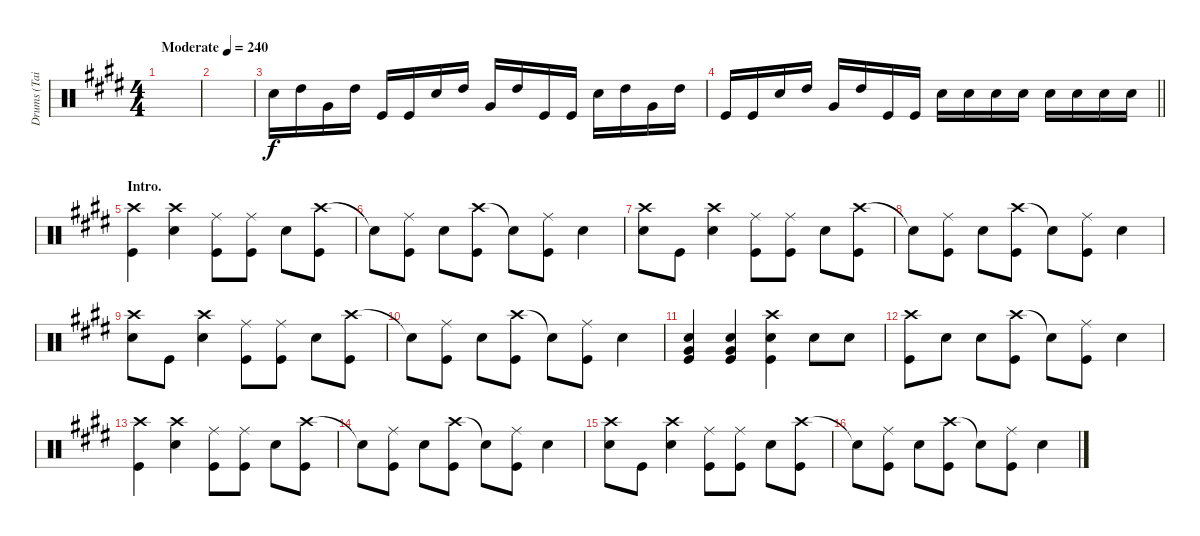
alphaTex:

\track ("Drums (Tainaka Ritsu)" "Drums (Tai") {instrument percussion}
\staff {score}
\articulation defaults
\ts (4 4)
\tempo (240 "Moderate")
\clef neutral
\ks e
|
|
"Snare (hit) 2".16 "High Tom (hit)".16 "Very Low Tom (hit)".16 "High Tom (hit)".16 "Kick (hit)".16 "Kick (hit)".16 "Snare (hit) 2".16 "High Tom (hit)".16 "Very Low Tom (hit)".16 "High Tom (hit)".16 "Kick (hit)".16 "Kick (hit)".16 "Snare (hit) 2".16 "High Tom (hit)".16 "Very Low Tom (hit)".16 "High Tom (hit)".16 |
\barLineRight lightlight "Kick (hit)".16 "Kick (hit)".16 "Snare (hit) 2".16 "High Tom (hit)".16 "Very Low Tom (hit)".16 "High Tom (hit)".16 "Kick (hit)".16 "Kick (hit)".16 "Snare (hit) 2".16 "Snare (hit) 2".16 "Snare (hit) 2".16 "Snare (hit) 2".16 "Snare (hit) 2".16 "Snare (hit) 2".16 "Snare (hit) 2".16 "Snare (hit) 2".16
|
\section ("" "Intro.")
("Crash high (hit)" "Kick (hit)").4 ("Crash high (hit)" "Snare (hit) 2").4 ("Ride (middle)" "Kick (hit)").8 ("Ride (middle)" "Kick (hit)").8 "Snare (hit) 2".8 ("Crash high (hit)" "Kick (hit)").8 |
"Snare (hit)"{t}.8 ("Ride (middle)" "Kick (hit)").8 "Snare (hit) 2".8 ("Crash high (hit)" "Kick (hit)").8 "Snare (hit)"{t}.8 ("Ride (middle)" "Kick (hit)").8 "Snare (hit) 2".4 |
("Crash high (hit)" "Snare (hit) 2").8 "Kick (hit)".8 ("Crash high (hit)" "Snare (hit) 2").4 ("Ride (middle)" "Kick (hit)").8 ("Ride (middle)" "Kick (hit)").8 "Snare (hit) 2".8 ("Crash high (hit)" "Kick (hit)").8 |
"Snare (hit)"{t}.8 ("Ride (middle)" "Kick (hit)").8 "Snare (hit) 2".8 ("Crash high (hit)" "Kick (hit)").8 "Snare (hit)"{t}.8 ("Ride (middle)" "Kick (hit)").8 "Snare (hit) 2".4 |
("Crash high (hit)" "Snare (hit) 2").8 "Kick (hit)".8 ("Crash high (hit)" "Snare (hit) 2").4 ("Ride (middle)" "Kick (hit)").8 ("Ride (middle)" "Kick (hit)").8 "Snare (hit) 2".8 ("Crash high (hit)" "Kick (hit)").8 |
"Snare (hit)"{t}.8 ("Ride (middle)" "Kick (hit)").8 "Snare (hit) 2".8 ("Crash high (hit)" "Kick (hit)").8 "Snare (hit)"{t}.8 ("Ride (middle)" "Kick (hit)").8 "Snare (hit) 2".4 |
("Snare (hit) 2" "Very Low Tom (hit)" "Kick (hit)").4 ("Snare (hit) 2" "Very Low Tom (hit)" "Kick (hit)").4 ("Crash high (hit)" "Snare (hit) 2" "Kick (hit)").4 "Snare (hit) 2".8 "Snare (hit) 2".8 |
("Crash high (hit)" "Kick (hit)").8 "Snare (hit) 2".8 "Snare (hit) 2".8 ("Crash high (hit)" "Kick (hit)").8 "Snare (hit)"{t}.8 ("Ride (middle)" "Kick (hit)").8 "Snare (hit) 2".4 |
("Crash high (hit)" "Kick (hit)").4 ("Crash high (hit)" "Snare (hit) 2").4 ("Ride (middle)" "Kick (hit)").8 ("Ride (middle)" "Kick (hit)").8 "Snare (hit) 2".8 ("Crash high (hit)" "Kick (hit)").8 |
"Snare (hit)"{t}.8 ("Ride (middle)" "Kick (hit)").8 "Snare (hit) 2".8 ("Crash high (hit)" "Kick (hit)").8 "Snare (hit)"{t}.8 ("Ride (middle)" "Kick (hit)").8 "Snare (hit) 2".4 |
("Crash high (hit)" "Snare (hit) 2").8 "Kick (hit)".8 ("Crash high (hit)" "Snare (hit) 2").4 ("Ride (middle)" "Kick (hit)").8 ("Ride (middle)" "Kick (hit)").8 "Snare (hit) 2".8 ("Crash high (hit)" "Kick (hit)").8 |
"Snare (hit)"{t}.8 ("Ride (middle)" "Kick (hit)").8 "Snare (hit) 2".8 ("Crash high (hit)" "Kick (hit)").8 "Snare (hit)"{t}.8 ("Ride (middle)" "Kick (hit)").8 "Snare (hit) 2".4
